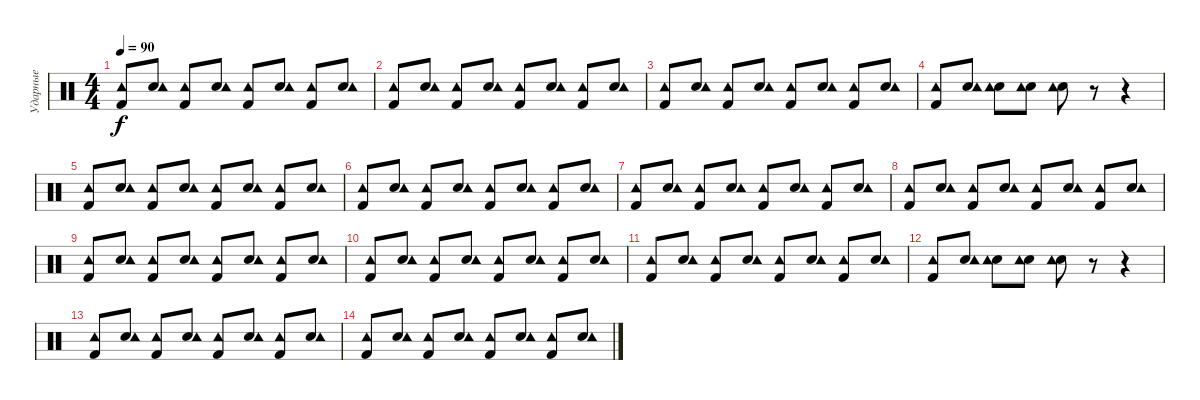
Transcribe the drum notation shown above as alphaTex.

\track ("Ударные" "Ударные") {instrument percussion}
\staff {score}
\articulation defaults
\ts (4 4)
\tempo 90
\clef neutral
\ks c
("Kick (hit) 2" "Tambourine (hit)").8{dy f} ("Snare (hit) 2" "Tambourine (hit)").8 ("Kick (hit) 2" "Tambourine (hit)").8 ("Snare (hit) 2" "Tambourine (hit)").8 ("Kick (hit) 2" "Tambourine (hit)").8 ("Snare (hit) 2" "Tambourine (hit)").8 ("Kick (hit) 2" "Tambourine (hit)").8 ("Snare (hit) 2" "Tambourine (hit)").8 |
("Kick (hit) 2" "Tambourine (hit)").8 ("Snare (hit) 2" "Tambourine (hit)").8 ("Kick (hit) 2" "Tambourine (hit)").8 ("Snare (hit) 2" "Tambourine (hit)").8 ("Kick (hit) 2" "Tambourine (hit)").8 ("Snare (hit) 2" "Tambourine (hit)").8 ("Kick (hit) 2" "Tambourine (hit)").8 ("Snare (hit) 2" "Tambourine (hit)").8 |
("Kick (hit) 2" "Tambourine (hit)").8 ("Snare (hit) 2" "Tambourine (hit)").8 ("Kick (hit) 2" "Tambourine (hit)").8 ("Snare (hit) 2" "Tambourine (hit)").8 ("Kick (hit) 2" "Tambourine (hit)").8 ("Snare (hit) 2" "Tambourine (hit)").8 ("Kick (hit) 2" "Tambourine (hit)").8 ("Snare (hit) 2" "Tambourine (hit)").8 |
("Kick (hit) 2" "Tambourine (hit)").8 ("Snare (hit) 2" "Tambourine (hit)").8 ("Snare (hit) 2" "Tambourine (hit)").8 ("Snare (hit) 2" "Tambourine (hit)").8 ("Snare (hit) 2" "Tambourine (hit)").8 r.8 r.4 |
("Kick (hit) 2" "Tambourine (hit)").8 ("Snare (hit) 2" "Tambourine (hit)").8 ("Kick (hit) 2" "Tambourine (hit)").8 ("Snare (hit) 2" "Tambourine (hit)").8 ("Kick (hit) 2" "Tambourine (hit)").8 ("Snare (hit) 2" "Tambourine (hit)").8 ("Kick (hit) 2" "Tambourine (hit)").8 ("Snare (hit) 2" "Tambourine (hit)").8 |
("Kick (hit) 2" "Tambourine (hit)").8 ("Snare (hit) 2" "Tambourine (hit)").8 ("Kick (hit) 2" "Tambourine (hit)").8 ("Snare (hit) 2" "Tambourine (hit)").8 ("Kick (hit) 2" "Tambourine (hit)").8 ("Snare (hit) 2" "Tambourine (hit)").8 ("Kick (hit) 2" "Tambourine (hit)").8 ("Snare (hit) 2" "Tambourine (hit)").8 |
("Kick (hit) 2" "Tambourine (hit)").8 ("Snare (hit) 2" "Tambourine (hit)").8 ("Kick (hit) 2" "Tambourine (hit)").8 ("Snare (hit) 2" "Tambourine (hit)").8 ("Kick (hit) 2" "Tambourine (hit)").8 ("Snare (hit) 2" "Tambourine (hit)").8 ("Kick (hit) 2" "Tambourine (hit)").8 ("Snare (hit) 2" "Tambourine (hit)").8 |
("Kick (hit) 2" "Tambourine (hit)").8 ("Snare (hit) 2" "Tambourine (hit)").8 ("Kick (hit) 2" "Tambourine (hit)").8 ("Snare (hit) 2" "Tambourine (hit)").8 ("Kick (hit) 2" "Tambourine (hit)").8 ("Snare (hit) 2" "Tambourine (hit)").8 ("Kick (hit) 2" "Tambourine (hit)").8 ("Snare (hit) 2" "Tambourine (hit)").8 |
("Kick (hit) 2" "Tambourine (hit)").8 ("Snare (hit) 2" "Tambourine (hit)").8 ("Kick (hit) 2" "Tambourine (hit)").8 ("Snare (hit) 2" "Tambourine (hit)").8 ("Kick (hit) 2" "Tambourine (hit)").8 ("Snare (hit) 2" "Tambourine (hit)").8 ("Kick (hit) 2" "Tambourine (hit)").8 ("Snare (hit) 2" "Tambourine (hit)").8 |
("Kick (hit) 2" "Tambourine (hit)").8 ("Snare (hit) 2" "Tambourine (hit)").8 ("Kick (hit) 2" "Tambourine (hit)").8 ("Snare (hit) 2" "Tambourine (hit)").8 ("Kick (hit) 2" "Tambourine (hit)").8 ("Snare (hit) 2" "Tambourine (hit)").8 ("Kick (hit) 2" "Tambourine (hit)").8 ("Snare (hit) 2" "Tambourine (hit)").8 |
("Kick (hit) 2" "Tambourine (hit)").8 ("Snare (hit) 2" "Tambourine (hit)").8 ("Kick (hit) 2" "Tambourine (hit)").8 ("Snare (hit) 2" "Tambourine (hit)").8 ("Kick (hit) 2" "Tambourine (hit)").8 ("Snare (hit) 2" "Tambourine (hit)").8 ("Kick (hit) 2" "Tambourine (hit)").8 ("Snare (hit) 2" "Tambourine (hit)").8 |
("Kick (hit) 2" "Tambourine (hit)").8 ("Snare (hit) 2" "Tambourine (hit)").8 ("Snare (hit) 2" "Tambourine (hit)").8 ("Snare (hit) 2" "Tambourine (hit)").8 ("Snare (hit) 2" "Tambourine (hit)").8 r.8 r.4 |
("Kick (hit) 2" "Tambourine (hit)").8{volume 0} ("Snare (hit) 2" "Tambourine (hit)").8 ("Kick (hit) 2" "Tambourine (hit)").8 ("Snare (hit) 2" "Tambourine (hit)").8 ("Kick (hit) 2" "Tambourine (hit)").8 ("Snare (hit) 2" "Tambourine (hit)").8 ("Kick (hit) 2" "Tambourine (hit)").8 ("Snare (hit) 2" "Tambourine (hit)").8 |
("Kick (hit) 2" "Tambourine (hit)").8 ("Snare (hit) 2" "Tambourine (hit)").8 ("Kick (hit) 2" "Tambourine (hit)").8 ("Snare (hit) 2" "Tambourine (hit)").8 ("Kick (hit) 2" "Tambourine (hit)").8 ("Snare (hit) 2" "Tambourine (hit)").8 ("Kick (hit) 2" "Tambourine (hit)").8 ("Snare (hit) 2" "Tambourine (hit)").8
